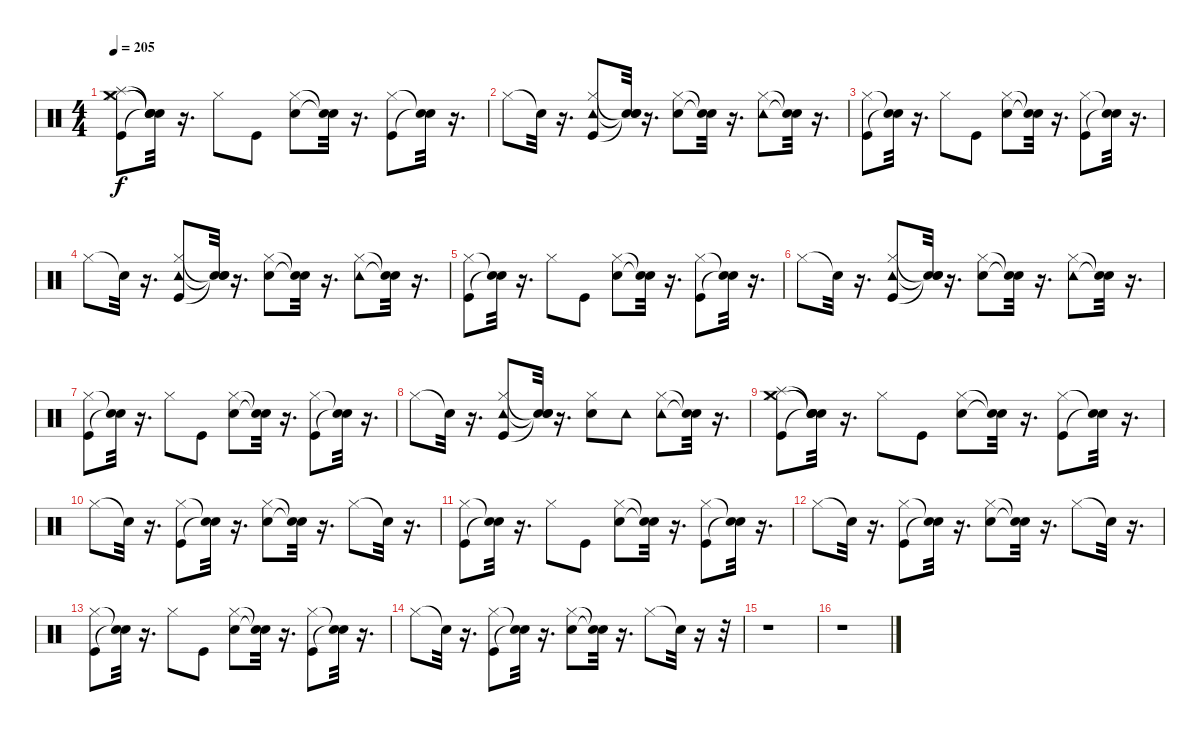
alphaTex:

\track "" {instrument percussion}
\staff {score}
\articulation defaults
\ts (4 4)
\tempo 205
\clef neutral
\ks c
("Kick (hit)" "Hi-Hat (closed)" "Splash (hit)" "Crash medium (hit)").8{dy f} ("Snare (hit)"{t} "Snare (hit)"{t} "Snare (hit)"{t} "Snare (hit)"{t}).32 r.16{d} "Hi-Hat (closed)".8 "Kick (hit)".8 ("Hi-Hat (closed)" "Electric Snare (hit)").8 ("Snare (hit)"{t} "Snare (hit)"{t}).32 r.16{d} ("Hi-Hat (closed)" "Kick (hit)").8 ("Snare (hit)"{t} "Snare (hit)"{t}).32 r.16{d} |
"Hi-Hat (closed)".8 "Snare (hit)"{t}.32 r.16{d} ("Hi-Hat (closed)" "Kick (hit)" "Tambourine (hit)").8 ("Snare (hit)"{t} "Snare (hit)"{t} "Snare (hit)"{t}).32 r.16{d} ("Hi-Hat (closed)" "Electric Snare (hit)").8 ("Snare (hit)"{t} "Snare (hit)"{t}).32 r.16{d} ("Hi-Hat (closed)" "Tambourine (hit)").8 ("Snare (hit)"{t} "Snare (hit)"{t}).32 r.16{d} |
("Kick (hit)" "Hi-Hat (closed)").8 ("Snare (hit)"{t} "Snare (hit)"{t}).32 r.16{d} "Hi-Hat (closed)".8 "Kick (hit)".8 ("Hi-Hat (closed)" "Electric Snare (hit)").8 ("Snare (hit)"{t} "Snare (hit)"{t}).32 r.16{d} ("Hi-Hat (closed)" "Kick (hit)").8 ("Snare (hit)"{t} "Snare (hit)"{t}).32 r.16{d} |
"Hi-Hat (closed)".8 "Snare (hit)"{t}.32 r.16{d} ("Hi-Hat (closed)" "Kick (hit)" "Tambourine (hit)").8 ("Snare (hit)"{t} "Snare (hit)"{t} "Snare (hit)"{t}).32 r.16{d} ("Hi-Hat (closed)" "Electric Snare (hit)").8 ("Snare (hit)"{t} "Snare (hit)"{t}).32 r.16{d} ("Hi-Hat (closed)" "Tambourine (hit)").8 ("Snare (hit)"{t} "Snare (hit)"{t}).32 r.16{d} |
("Kick (hit)" "Hi-Hat (closed)").8 ("Snare (hit)"{t} "Snare (hit)"{t}).32 r.16{d} "Hi-Hat (closed)".8 "Kick (hit)".8 ("Hi-Hat (closed)" "Electric Snare (hit)").8 ("Snare (hit)"{t} "Snare (hit)"{t}).32 r.16{d} ("Hi-Hat (closed)" "Kick (hit)").8 ("Snare (hit)"{t} "Snare (hit)"{t}).32 r.16{d} |
"Hi-Hat (closed)".8 "Snare (hit)"{t}.32 r.16{d} ("Hi-Hat (closed)" "Kick (hit)" "Tambourine (hit)").8 ("Snare (hit)"{t} "Snare (hit)"{t} "Snare (hit)"{t}).32 r.16{d} ("Hi-Hat (closed)" "Electric Snare (hit)").8 ("Snare (hit)"{t} "Snare (hit)"{t}).32 r.16{d} ("Hi-Hat (closed)" "Tambourine (hit)").8 ("Snare (hit)"{t} "Snare (hit)"{t}).32 r.16{d} |
("Kick (hit)" "Hi-Hat (closed)").8 ("Snare (hit)"{t} "Snare (hit)"{t}).32 r.16{d} "Hi-Hat (closed)".8 "Kick (hit)".8 ("Hi-Hat (closed)" "Electric Snare (hit)").8 ("Snare (hit)"{t} "Snare (hit)"{t}).32 r.16{d} ("Hi-Hat (closed)" "Kick (hit)").8 ("Snare (hit)"{t} "Snare (hit)"{t}).32 r.16{d} |
"Hi-Hat (closed)".8 "Snare (hit)"{t}.32 r.16{d} ("Hi-Hat (closed)" "Kick (hit)" "Tambourine (hit)").8 ("Snare (hit)"{t} "Snare (hit)"{t} "Snare (hit)"{t}).32 r.16{d} ("Hi-Hat (closed)" "Electric Snare (hit)").8 "Tambourine (hit)".8 ("Hi-Hat (closed)" "Tambourine (hit)").8 ("Snare (hit)"{t} "Snare (hit)"{t}).32 r.16{d} |
("Kick (hit)" "Hi-Hat (closed)" "Splash (hit)" "Crash medium (hit)").8 ("Snare (hit)"{t} "Snare (hit)"{t} "Snare (hit)"{t} "Snare (hit)"{t}).32 r.16{d} "Hi-Hat (closed)".8 "Kick (hit)".8 ("Hi-Hat (closed)" "Electric Snare (hit)").8 ("Snare (hit)"{t} "Snare (hit)"{t}).32 r.16{d} ("Hi-Hat (closed)" "Kick (hit)").8 ("Snare (hit)"{t} "Snare (hit)"{t}).32 r.16{d} |
"Hi-Hat (closed)".8 "Snare (hit)"{t}.32 r.16{d} ("Hi-Hat (closed)" "Kick (hit)").8 ("Snare (hit)"{t} "Snare (hit)"{t}).32 r.16{d} ("Hi-Hat (closed)" "Electric Snare (hit)").8 ("Snare (hit)"{t} "Snare (hit)"{t}).32 r.16{d} "Hi-Hat (closed)".8 "Snare (hit)"{t}.32 r.16{d} |
("Kick (hit)" "Hi-Hat (closed)").8 ("Snare (hit)"{t} "Snare (hit)"{t}).32 r.16{d} "Hi-Hat (closed)".8 "Kick (hit)".8 ("Hi-Hat (closed)" "Electric Snare (hit)").8 ("Snare (hit)"{t} "Snare (hit)"{t}).32 r.16{d} ("Hi-Hat (closed)" "Kick (hit)").8 ("Snare (hit)"{t} "Snare (hit)"{t}).32 r.16{d} |
"Hi-Hat (closed)".8 "Snare (hit)"{t}.32 r.16{d} ("Hi-Hat (closed)" "Kick (hit)").8 ("Snare (hit)"{t} "Snare (hit)"{t}).32 r.16{d} ("Hi-Hat (closed)" "Electric Snare (hit)").8 ("Snare (hit)"{t} "Snare (hit)"{t}).32 r.16{d} "Hi-Hat (closed)".8 "Snare (hit)"{t}.32 r.16{d} |
("Kick (hit)" "Hi-Hat (closed)").8 ("Snare (hit)"{t} "Snare (hit)"{t}).32 r.16{d} "Hi-Hat (closed)".8 "Kick (hit)".8 ("Hi-Hat (closed)" "Electric Snare (hit)").8 ("Snare (hit)"{t} "Snare (hit)"{t}).32 r.16{d} ("Hi-Hat (closed)" "Kick (hit)").8 ("Snare (hit)"{t} "Snare (hit)"{t}).32 r.16{d} |
"Hi-Hat (closed)".8 "Snare (hit)"{t}.32 r.16{d} ("Hi-Hat (closed)" "Kick (hit)").8 ("Snare (hit)"{t} "Snare (hit)"{t}).32 r.16{d} ("Hi-Hat (closed)" "Electric Snare (hit)").8 ("Snare (hit)"{t} "Snare (hit)"{t}).32 r.16{d} "Hi-Hat (closed)".8 "Snare (hit)"{t}.32 r.16 r.32 |
r.1 |
r.1
